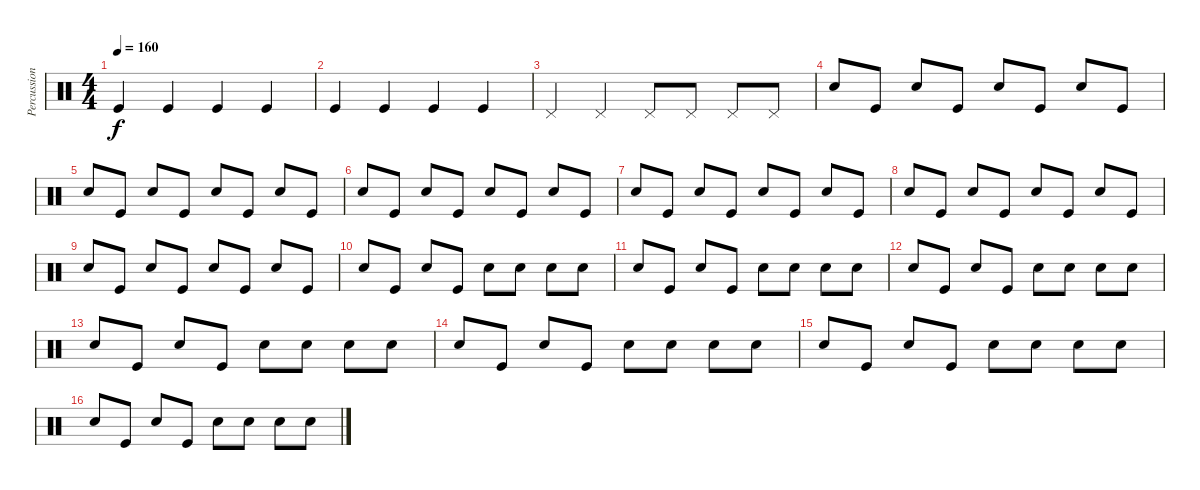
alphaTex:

\track ("Percussions" "Percussion") {instrument percussion}
\staff {score}
\articulation defaults
\ts (4 4)
\tempo 160
\clef neutral
\ks c "Kick (hit)".4{dy f} "Kick (hit)".4 "Kick (hit)".4 "Kick (hit)".4
|
"Kick (hit)".4 "Kick (hit)".4 "Kick (hit)".4 "Kick (hit)".4 |
"Pedal Hi-Hat (hit)".4 "Pedal Hi-Hat (hit)".4 "Pedal Hi-Hat (hit)".8 "Pedal Hi-Hat (hit)".8 "Pedal Hi-Hat (hit)".8 "Pedal Hi-Hat (hit)".8 |
"Snare (hit) 2".8 "Kick (hit)".8 "Snare (hit) 2".8 "Kick (hit)".8 "Snare (hit) 2".8 "Kick (hit)".8 "Snare (hit) 2".8 "Kick (hit)".8 |
"Snare (hit) 2".8 "Kick (hit)".8 "Snare (hit) 2".8 "Kick (hit)".8 "Snare (hit) 2".8 "Kick (hit)".8 "Snare (hit) 2".8 "Kick (hit)".8 |
"Snare (hit) 2".8 "Kick (hit)".8 "Snare (hit) 2".8 "Kick (hit)".8 "Snare (hit) 2".8 "Kick (hit)".8 "Snare (hit) 2".8 "Kick (hit)".8 |
"Snare (hit) 2".8 "Kick (hit)".8 "Snare (hit) 2".8 "Kick (hit)".8 "Snare (hit) 2".8 "Kick (hit)".8 "Snare (hit) 2".8 "Kick (hit)".8 |
"Snare (hit) 2".8 "Kick (hit)".8 "Snare (hit) 2".8 "Kick (hit)".8 "Snare (hit) 2".8 "Kick (hit)".8 "Snare (hit) 2".8 "Kick (hit)".8 |
"Snare (hit) 2".8 "Kick (hit)".8 "Snare (hit) 2".8 "Kick (hit)".8 "Snare (hit) 2".8 "Kick (hit)".8 "Snare (hit) 2".8 "Kick (hit)".8 |
"Snare (hit) 2".8 "Kick (hit)".8 "Snare (hit) 2".8 "Kick (hit)".8 "Snare (hit) 2".8 "Hand Clap (hit)".8 "Hand Clap (hit)".8 "Hand Clap (hit)".8 |
"Snare (hit) 2".8 "Kick (hit)".8 "Snare (hit) 2".8 "Kick (hit)".8 "Snare (hit) 2".8 "Hand Clap (hit)".8 "Hand Clap (hit)".8 "Hand Clap (hit)".8 |
"Snare (hit) 2".8 "Kick (hit)".8 "Snare (hit) 2".8 "Kick (hit)".8 "Snare (hit) 2".8 "Hand Clap (hit)".8 "Hand Clap (hit)".8 "Hand Clap (hit)".8 |
"Snare (hit) 2".8 "Kick (hit)".8 "Snare (hit) 2".8 "Kick (hit)".8 "Snare (hit) 2".8 "Hand Clap (hit)".8 "Hand Clap (hit)".8 "Hand Clap (hit)".8 |
"Snare (hit) 2".8 "Kick (hit)".8 "Snare (hit) 2".8 "Kick (hit)".8 "Snare (hit) 2".8 "Hand Clap (hit)".8 "Hand Clap (hit)".8 "Hand Clap (hit)".8 |
"Snare (hit) 2".8 "Kick (hit)".8 "Snare (hit) 2".8 "Kick (hit)".8 "Snare (hit) 2".8 "Hand Clap (hit)".8 "Hand Clap (hit)".8 "Hand Clap (hit)".8 |
"Snare (hit) 2".8 "Kick (hit)".8 "Snare (hit) 2".8 "Kick (hit)".8 "Snare (hit) 2".8 "Hand Clap (hit)".8 "Hand Clap (hit)".8 "Hand Clap (hit)".8
